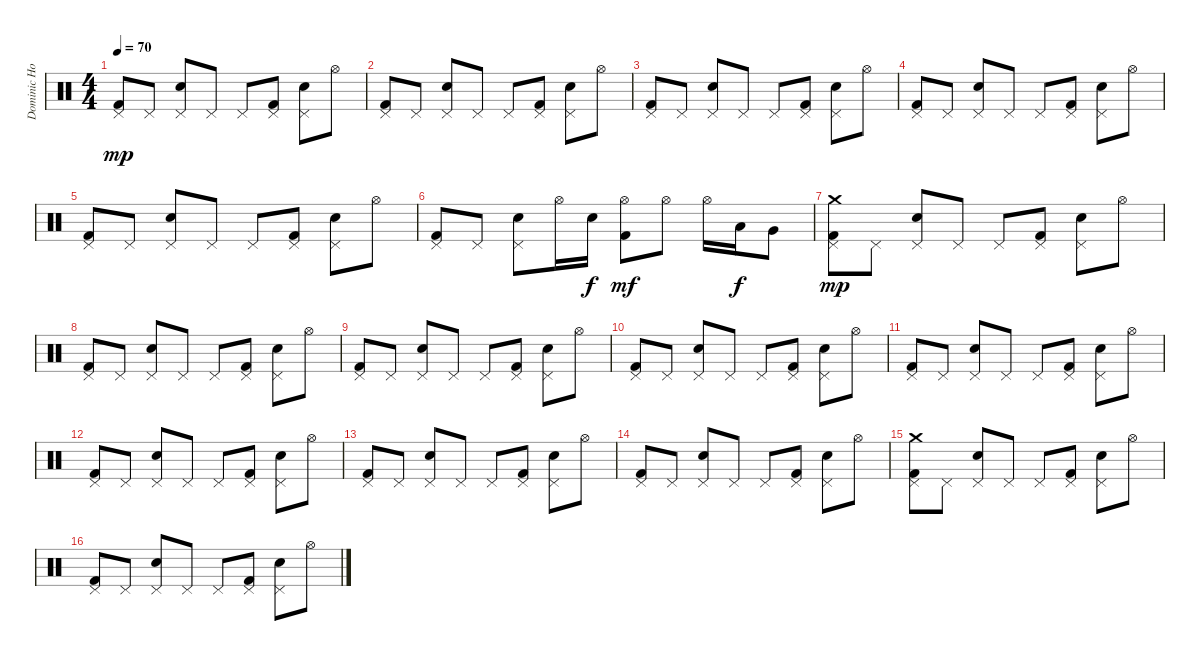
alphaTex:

\track ("Dominic Howard" "Dominic Ho") {instrument percussion}
\staff {score}
\articulation defaults
\ts (4 4)
\tempo 70
\clef neutral
\ks c
("Pedal Hi-Hat (hit)" "Kick (hit) 2").8{dy mp} "Pedal Hi-Hat (hit)".8 ("Pedal Hi-Hat (hit)" "Electric Snare (hit)").8 "Pedal Hi-Hat (hit)".8 "Pedal Hi-Hat (hit)".8 ("Pedal Hi-Hat (hit)" "Kick (hit) 2").8 ("Pedal Hi-Hat (hit)" "Electric Snare (hit)").8 "Hi-Hat (open)".8 |
("Pedal Hi-Hat (hit)" "Kick (hit) 2").8 "Pedal Hi-Hat (hit)".8 ("Pedal Hi-Hat (hit)" "Electric Snare (hit)").8 "Pedal Hi-Hat (hit)".8 "Pedal Hi-Hat (hit)".8 ("Pedal Hi-Hat (hit)" "Kick (hit) 2").8 ("Pedal Hi-Hat (hit)" "Electric Snare (hit)").8 "Hi-Hat (open)".8 |
("Pedal Hi-Hat (hit)" "Kick (hit) 2").8 "Pedal Hi-Hat (hit)".8 ("Pedal Hi-Hat (hit)" "Electric Snare (hit)").8 "Pedal Hi-Hat (hit)".8 "Pedal Hi-Hat (hit)".8 ("Pedal Hi-Hat (hit)" "Kick (hit) 2").8 ("Pedal Hi-Hat (hit)" "Electric Snare (hit)").8 "Hi-Hat (open)".8 |
("Pedal Hi-Hat (hit)" "Kick (hit) 2").8 "Pedal Hi-Hat (hit)".8 ("Pedal Hi-Hat (hit)" "Electric Snare (hit)").8 "Pedal Hi-Hat (hit)".8 "Pedal Hi-Hat (hit)".8 ("Pedal Hi-Hat (hit)" "Kick (hit) 2").8 ("Pedal Hi-Hat (hit)" "Electric Snare (hit)").8 "Hi-Hat (open)".8 |
("Pedal Hi-Hat (hit)" "Kick (hit) 2").8 "Pedal Hi-Hat (hit)".8 ("Pedal Hi-Hat (hit)" "Electric Snare (hit)").8 "Pedal Hi-Hat (hit)".8 "Pedal Hi-Hat (hit)".8 ("Pedal Hi-Hat (hit)" "Kick (hit) 2").8 ("Pedal Hi-Hat (hit)" "Electric Snare (hit)").8 "Hi-Hat (open)".8 |
("Pedal Hi-Hat (hit)" "Kick (hit) 2").8 "Pedal Hi-Hat (hit)".8 ("Pedal Hi-Hat (hit)" "Electric Snare (hit)").8 "Hi-Hat (open)".16 "Electric Snare (hit)".16{dy f} ("Hi-Hat (open)" "Kick (hit) 2").8{dy mf} "Hi-Hat (open)".8 "Hi-Hat (open)".16 "Low Tom (hit)".16{dy f} "Very Low Tom (hit)".8 |
("Crash medium (hit)" "Pedal Hi-Hat (hit)" "Kick (hit) 2").8{dy mp} "Pedal Hi-Hat (hit)".8 ("Pedal Hi-Hat (hit)" "Electric Snare (hit)").8 "Pedal Hi-Hat (hit)".8 "Pedal Hi-Hat (hit)".8 ("Pedal Hi-Hat (hit)" "Kick (hit) 2").8 ("Pedal Hi-Hat (hit)" "Electric Snare (hit)").8 "Hi-Hat (open)".8 |
("Pedal Hi-Hat (hit)" "Kick (hit) 2").8 "Pedal Hi-Hat (hit)".8 ("Pedal Hi-Hat (hit)" "Electric Snare (hit)").8 "Pedal Hi-Hat (hit)".8 "Pedal Hi-Hat (hit)".8 ("Pedal Hi-Hat (hit)" "Kick (hit) 2").8 ("Pedal Hi-Hat (hit)" "Electric Snare (hit)").8 "Hi-Hat (open)".8 |
("Pedal Hi-Hat (hit)" "Kick (hit) 2").8 "Pedal Hi-Hat (hit)".8 ("Pedal Hi-Hat (hit)" "Electric Snare (hit)").8 "Pedal Hi-Hat (hit)".8 "Pedal Hi-Hat (hit)".8 ("Pedal Hi-Hat (hit)" "Kick (hit) 2").8 ("Pedal Hi-Hat (hit)" "Electric Snare (hit)").8 "Hi-Hat (open)".8 |
("Pedal Hi-Hat (hit)" "Kick (hit) 2").8 "Pedal Hi-Hat (hit)".8 ("Pedal Hi-Hat (hit)" "Electric Snare (hit)").8 "Pedal Hi-Hat (hit)".8 "Pedal Hi-Hat (hit)".8 ("Pedal Hi-Hat (hit)" "Kick (hit) 2").8 ("Pedal Hi-Hat (hit)" "Electric Snare (hit)").8 "Hi-Hat (open)".8 |
("Pedal Hi-Hat (hit)" "Kick (hit) 2").8 "Pedal Hi-Hat (hit)".8 ("Pedal Hi-Hat (hit)" "Electric Snare (hit)").8 "Pedal Hi-Hat (hit)".8 "Pedal Hi-Hat (hit)".8 ("Pedal Hi-Hat (hit)" "Kick (hit) 2").8 ("Pedal Hi-Hat (hit)" "Electric Snare (hit)").8 "Hi-Hat (open)".8 |
("Pedal Hi-Hat (hit)" "Kick (hit) 2").8 "Pedal Hi-Hat (hit)".8 ("Pedal Hi-Hat (hit)" "Electric Snare (hit)").8 "Pedal Hi-Hat (hit)".8 "Pedal Hi-Hat (hit)".8 ("Pedal Hi-Hat (hit)" "Kick (hit) 2").8 ("Pedal Hi-Hat (hit)" "Electric Snare (hit)").8 "Hi-Hat (open)".8 |
("Pedal Hi-Hat (hit)" "Kick (hit) 2").8 "Pedal Hi-Hat (hit)".8 ("Pedal Hi-Hat (hit)" "Electric Snare (hit)").8 "Pedal Hi-Hat (hit)".8 "Pedal Hi-Hat (hit)".8 ("Pedal Hi-Hat (hit)" "Kick (hit) 2").8 ("Pedal Hi-Hat (hit)" "Electric Snare (hit)").8 "Hi-Hat (open)".8 |
("Pedal Hi-Hat (hit)" "Kick (hit) 2").8 "Pedal Hi-Hat (hit)".8 ("Pedal Hi-Hat (hit)" "Electric Snare (hit)").8 "Pedal Hi-Hat (hit)".8 "Pedal Hi-Hat (hit)".8 ("Pedal Hi-Hat (hit)" "Kick (hit) 2").8 ("Pedal Hi-Hat (hit)" "Electric Snare (hit)").8 "Hi-Hat (open)".8 |
("Crash medium (hit)" "Pedal Hi-Hat (hit)" "Kick (hit) 2").8 "Pedal Hi-Hat (hit)".8 ("Pedal Hi-Hat (hit)" "Electric Snare (hit)").8 "Pedal Hi-Hat (hit)".8 "Pedal Hi-Hat (hit)".8 ("Pedal Hi-Hat (hit)" "Kick (hit) 2").8 ("Pedal Hi-Hat (hit)" "Electric Snare (hit)").8 "Hi-Hat (open)".8 |
("Pedal Hi-Hat (hit)" "Kick (hit) 2").8 "Pedal Hi-Hat (hit)".8 ("Pedal Hi-Hat (hit)" "Electric Snare (hit)").8 "Pedal Hi-Hat (hit)".8 "Pedal Hi-Hat (hit)".8 ("Pedal Hi-Hat (hit)" "Kick (hit) 2").8 ("Pedal Hi-Hat (hit)" "Electric Snare (hit)").8 "Hi-Hat (open)".8
